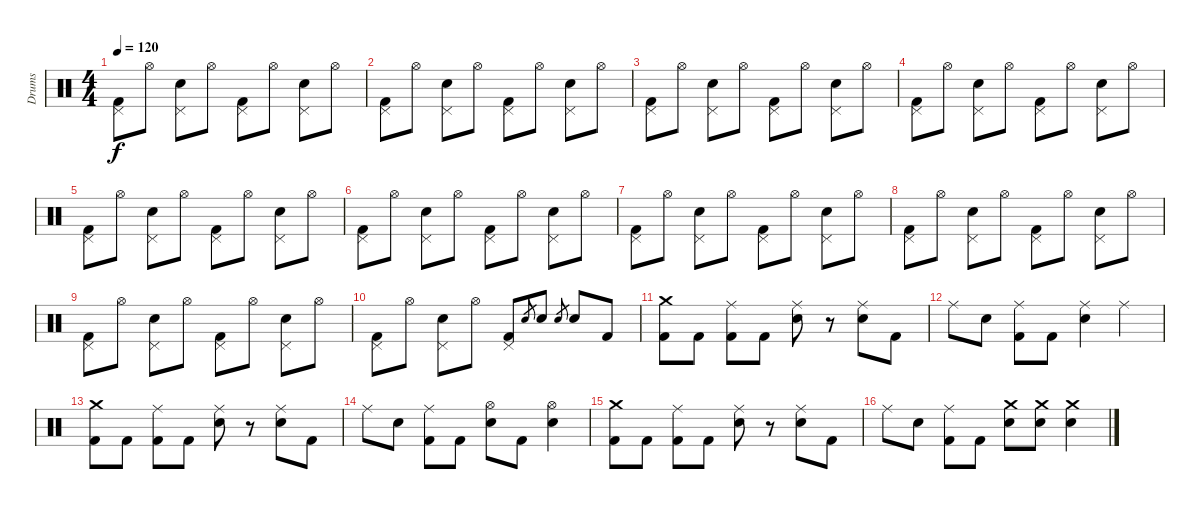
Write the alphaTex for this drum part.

\track ("Drums" "Drums") {instrument percussion}
\staff {score}
\articulation defaults
\ts (4 4)
\tempo 120
\clef neutral
\ks c
("Pedal Hi-Hat (hit)" "Kick (hit) 2").8{dy f} "Hi-Hat (open)".8 ("Pedal Hi-Hat (hit)" "Electric Snare (hit)").8 "Hi-Hat (open)".8 ("Pedal Hi-Hat (hit)" "Kick (hit) 2").8 "Hi-Hat (open)".8 ("Pedal Hi-Hat (hit)" "Electric Snare (hit)").8 "Hi-Hat (open)".8 |
("Pedal Hi-Hat (hit)" "Kick (hit) 2").8 "Hi-Hat (open)".8 ("Pedal Hi-Hat (hit)" "Electric Snare (hit)").8 "Hi-Hat (open)".8 ("Pedal Hi-Hat (hit)" "Kick (hit) 2").8 "Hi-Hat (open)".8 ("Pedal Hi-Hat (hit)" "Electric Snare (hit)").8 "Hi-Hat (open)".8 |
("Pedal Hi-Hat (hit)" "Kick (hit) 2").8 "Hi-Hat (open)".8 ("Pedal Hi-Hat (hit)" "Electric Snare (hit)").8 "Hi-Hat (open)".8 ("Pedal Hi-Hat (hit)" "Kick (hit) 2").8 "Hi-Hat (open)".8 ("Pedal Hi-Hat (hit)" "Electric Snare (hit)").8 "Hi-Hat (open)".8 |
("Pedal Hi-Hat (hit)" "Kick (hit) 2").8 "Hi-Hat (open)".8 ("Pedal Hi-Hat (hit)" "Electric Snare (hit)").8 "Hi-Hat (open)".8 ("Pedal Hi-Hat (hit)" "Kick (hit) 2").8 "Hi-Hat (open)".8 ("Pedal Hi-Hat (hit)" "Electric Snare (hit)").8 "Hi-Hat (open)".8 |
("Pedal Hi-Hat (hit)" "Kick (hit) 2").8 "Hi-Hat (open)".8 ("Pedal Hi-Hat (hit)" "Electric Snare (hit)").8 "Hi-Hat (open)".8 ("Pedal Hi-Hat (hit)" "Kick (hit) 2").8 "Hi-Hat (open)".8 ("Pedal Hi-Hat (hit)" "Electric Snare (hit)").8 "Hi-Hat (open)".8 |
("Pedal Hi-Hat (hit)" "Kick (hit) 2").8 "Hi-Hat (open)".8 ("Pedal Hi-Hat (hit)" "Electric Snare (hit)").8 "Hi-Hat (open)".8 ("Pedal Hi-Hat (hit)" "Kick (hit) 2").8 "Hi-Hat (open)".8 ("Pedal Hi-Hat (hit)" "Electric Snare (hit)").8 "Hi-Hat (open)".8 |
("Pedal Hi-Hat (hit)" "Kick (hit) 2").8 "Hi-Hat (open)".8 ("Pedal Hi-Hat (hit)" "Electric Snare (hit)").8 "Hi-Hat (open)".8 ("Pedal Hi-Hat (hit)" "Kick (hit) 2").8 "Hi-Hat (open)".8 ("Pedal Hi-Hat (hit)" "Electric Snare (hit)").8 "Hi-Hat (open)".8 |
("Pedal Hi-Hat (hit)" "Kick (hit) 2").8 "Hi-Hat (open)".8 ("Pedal Hi-Hat (hit)" "Electric Snare (hit)").8 "Hi-Hat (open)".8 ("Pedal Hi-Hat (hit)" "Kick (hit) 2").8 "Hi-Hat (open)".8 ("Pedal Hi-Hat (hit)" "Electric Snare (hit)").8 "Hi-Hat (open)".8 |
("Pedal Hi-Hat (hit)" "Kick (hit) 2").8 "Hi-Hat (open)".8 ("Pedal Hi-Hat (hit)" "Electric Snare (hit)").8 "Hi-Hat (open)".8 ("Pedal Hi-Hat (hit)" "Kick (hit) 2").8 "Hi-Hat (open)".8 ("Pedal Hi-Hat (hit)" "Electric Snare (hit)").8 "Hi-Hat (open)".8 |
("Pedal Hi-Hat (hit)" "Kick (hit) 2").8 "Hi-Hat (open)".8 ("Pedal Hi-Hat (hit)" "Electric Snare (hit)").8 "Hi-Hat (open)".8 ("Pedal Hi-Hat (hit)" "Kick (hit) 2").8 "Electric Snare (hit)".8{gr} "Electric Snare (hit)".8 "Electric Snare (hit)".8{gr} "Electric Snare (hit)".8 "Kick (hit) 2".8 |
("Crash medium (hit)" "Kick (hit) 2").8 "Kick (hit) 2".8 ("Ride (middle)" "Kick (hit) 2").8 "Kick (hit) 2".8 ("Ride (middle)" "Electric Snare (hit)").8 r.8 ("Ride (middle)" "Electric Snare (hit)").8 "Kick (hit) 2".8 |
"Ride (middle)".8 "Electric Snare (hit)".8 ("Ride (middle)" "Kick (hit) 2").8 "Kick (hit) 2".8 ("Ride (middle)" "Electric Snare (hit)").4 "Ride (middle)".4 |
("Crash medium (hit)" "Kick (hit) 2").8 "Kick (hit) 2".8 ("Ride (middle)" "Kick (hit) 2").8 "Kick (hit) 2".8 ("Ride (middle)" "Electric Snare (hit)").8 r.8 ("Ride (middle)" "Electric Snare (hit)").8 "Kick (hit) 2".8 |
"Ride (middle)".8 "Electric Snare (hit)".8 ("Ride (middle)" "Kick (hit) 2").8 "Kick (hit) 2".8 ("Hi-Hat (open)" "Electric Snare (hit)").8 "Kick (hit) 2".8 ("Hi-Hat (open)" "Electric Snare (hit)").4 |
("Crash medium (hit)" "Kick (hit) 2").8 "Kick (hit) 2".8 ("Ride (middle)" "Kick (hit) 2").8 "Kick (hit) 2".8 ("Ride (middle)" "Electric Snare (hit)").8 r.8 ("Ride (middle)" "Electric Snare (hit)").8 "Kick (hit) 2".8 |
"Ride (middle)".8 "Electric Snare (hit)".8 ("Ride (middle)" "Kick (hit) 2").8 "Kick (hit) 2".8 ("Crash medium (hit)" "Electric Snare (hit)").8 ("Crash medium (hit)" "Electric Snare (hit)").8 ("Crash medium (hit)" "Electric Snare (hit)").4
